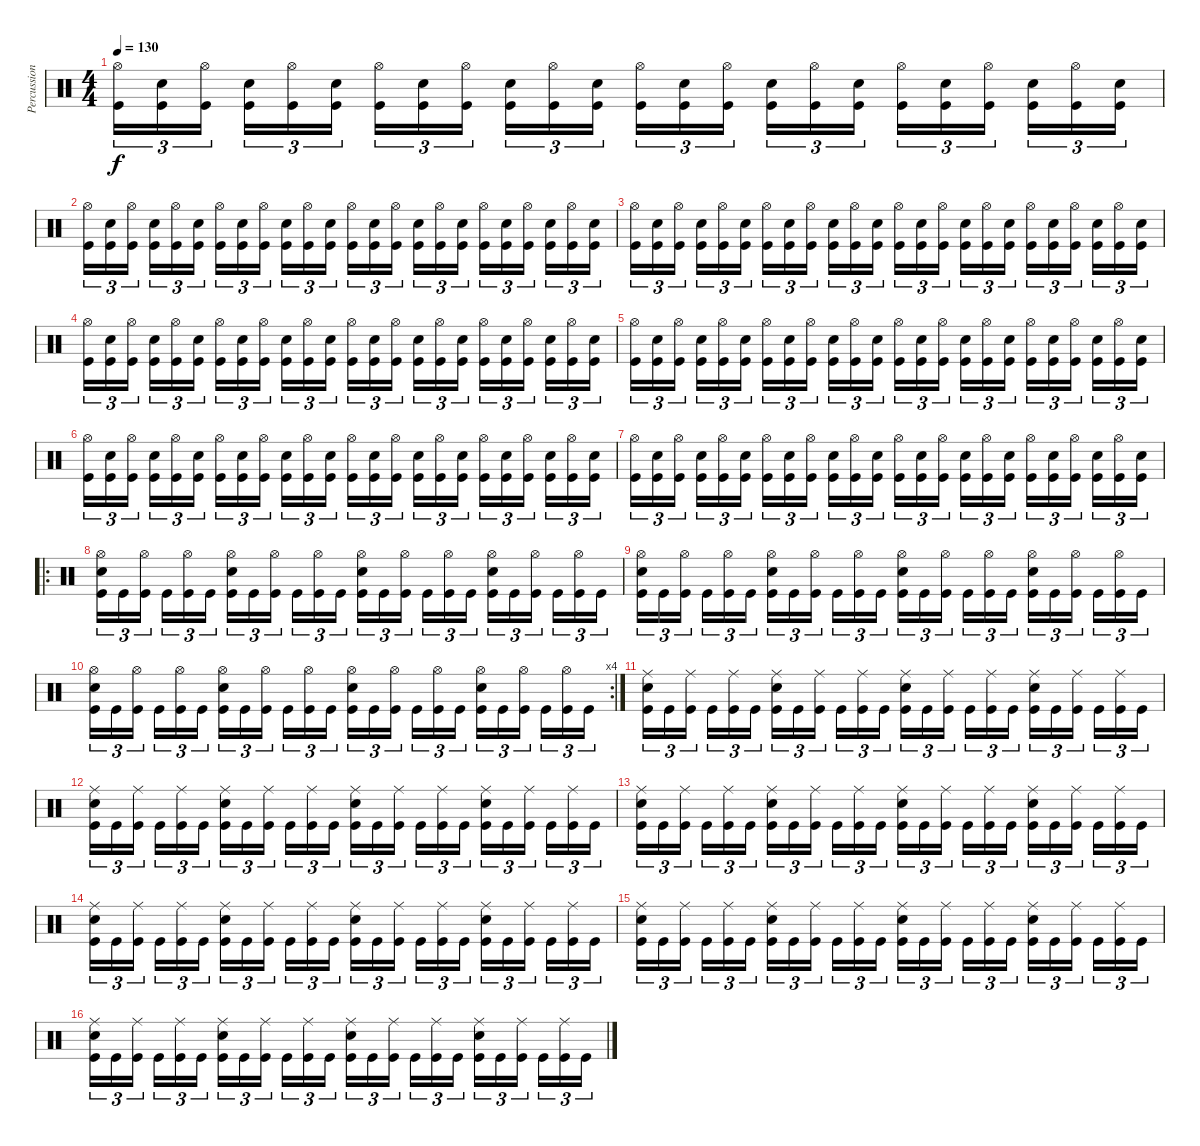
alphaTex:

\track ("Percussion" "Percussion") {instrument percussion}
\staff {score}
\articulation defaults
\ts (4 4)
\tempo 130
\clef neutral
\ks c
("Hi-Hat (open)" "Kick (hit)").16{tu (3 2) dy f} ("Electric Snare (hit)" "Kick (hit)").16{tu (3 2)} ("Hi-Hat (open)" "Kick (hit)").16{tu (3 2)} ("Electric Snare (hit)" "Kick (hit)").16{tu (3 2)} ("Hi-Hat (open)" "Kick (hit)").16{tu (3 2)} ("Electric Snare (hit)" "Kick (hit)").16{tu (3 2)} ("Hi-Hat (open)" "Kick (hit)").16{tu (3 2)} ("Electric Snare (hit)" "Kick (hit)").16{tu (3 2)} ("Hi-Hat (open)" "Kick (hit)").16{tu (3 2)} ("Electric Snare (hit)" "Kick (hit)").16{tu (3 2)} ("Hi-Hat (open)" "Kick (hit)").16{tu (3 2)} ("Electric Snare (hit)" "Kick (hit)").16{tu (3 2)} ("Hi-Hat (open)" "Kick (hit)").16{tu (3 2)} ("Electric Snare (hit)" "Kick (hit)").16{tu (3 2)} ("Hi-Hat (open)" "Kick (hit)").16{tu (3 2)} ("Electric Snare (hit)" "Kick (hit)").16{tu (3 2)} ("Hi-Hat (open)" "Kick (hit)").16{tu (3 2)} ("Electric Snare (hit)" "Kick (hit)").16{tu (3 2)} ("Hi-Hat (open)" "Kick (hit)").16{tu (3 2)} ("Electric Snare (hit)" "Kick (hit)").16{tu (3 2)} ("Hi-Hat (open)" "Kick (hit)").16{tu (3 2)} ("Electric Snare (hit)" "Kick (hit)").16{tu (3 2)} ("Hi-Hat (open)" "Kick (hit)").16{tu (3 2)} ("Electric Snare (hit)" "Kick (hit)").16{tu (3 2)} |
("Hi-Hat (open)" "Kick (hit)").16{tu (3 2)} ("Electric Snare (hit)" "Kick (hit)").16{tu (3 2)} ("Hi-Hat (open)" "Kick (hit)").16{tu (3 2)} ("Electric Snare (hit)" "Kick (hit)").16{tu (3 2)} ("Hi-Hat (open)" "Kick (hit)").16{tu (3 2)} ("Electric Snare (hit)" "Kick (hit)").16{tu (3 2)} ("Hi-Hat (open)" "Kick (hit)").16{tu (3 2)} ("Electric Snare (hit)" "Kick (hit)").16{tu (3 2)} ("Hi-Hat (open)" "Kick (hit)").16{tu (3 2)} ("Electric Snare (hit)" "Kick (hit)").16{tu (3 2)} ("Hi-Hat (open)" "Kick (hit)").16{tu (3 2)} ("Electric Snare (hit)" "Kick (hit)").16{tu (3 2)} ("Hi-Hat (open)" "Kick (hit)").16{tu (3 2)} ("Electric Snare (hit)" "Kick (hit)").16{tu (3 2)} ("Hi-Hat (open)" "Kick (hit)").16{tu (3 2)} ("Electric Snare (hit)" "Kick (hit)").16{tu (3 2)} ("Hi-Hat (open)" "Kick (hit)").16{tu (3 2)} ("Electric Snare (hit)" "Kick (hit)").16{tu (3 2)} ("Hi-Hat (open)" "Kick (hit)").16{tu (3 2)} ("Electric Snare (hit)" "Kick (hit)").16{tu (3 2)} ("Hi-Hat (open)" "Kick (hit)").16{tu (3 2)} ("Electric Snare (hit)" "Kick (hit)").16{tu (3 2)} ("Hi-Hat (open)" "Kick (hit)").16{tu (3 2)} ("Electric Snare (hit)" "Kick (hit)").16{tu (3 2)} |
("Hi-Hat (open)" "Kick (hit)").16{tu (3 2)} ("Electric Snare (hit)" "Kick (hit)").16{tu (3 2)} ("Hi-Hat (open)" "Kick (hit)").16{tu (3 2)} ("Electric Snare (hit)" "Kick (hit)").16{tu (3 2)} ("Hi-Hat (open)" "Kick (hit)").16{tu (3 2)} ("Electric Snare (hit)" "Kick (hit)").16{tu (3 2)} ("Hi-Hat (open)" "Kick (hit)").16{tu (3 2)} ("Electric Snare (hit)" "Kick (hit)").16{tu (3 2)} ("Hi-Hat (open)" "Kick (hit)").16{tu (3 2)} ("Electric Snare (hit)" "Kick (hit)").16{tu (3 2)} ("Hi-Hat (open)" "Kick (hit)").16{tu (3 2)} ("Electric Snare (hit)" "Kick (hit)").16{tu (3 2)} ("Hi-Hat (open)" "Kick (hit)").16{tu (3 2)} ("Electric Snare (hit)" "Kick (hit)").16{tu (3 2)} ("Hi-Hat (open)" "Kick (hit)").16{tu (3 2)} ("Electric Snare (hit)" "Kick (hit)").16{tu (3 2)} ("Hi-Hat (open)" "Kick (hit)").16{tu (3 2)} ("Electric Snare (hit)" "Kick (hit)").16{tu (3 2)} ("Hi-Hat (open)" "Kick (hit)").16{tu (3 2)} ("Electric Snare (hit)" "Kick (hit)").16{tu (3 2)} ("Hi-Hat (open)" "Kick (hit)").16{tu (3 2)} ("Electric Snare (hit)" "Kick (hit)").16{tu (3 2)} ("Hi-Hat (open)" "Kick (hit)").16{tu (3 2)} ("Electric Snare (hit)" "Kick (hit)").16{tu (3 2)} |
("Hi-Hat (open)" "Kick (hit)").16{tu (3 2)} ("Electric Snare (hit)" "Kick (hit)").16{tu (3 2)} ("Hi-Hat (open)" "Kick (hit)").16{tu (3 2)} ("Electric Snare (hit)" "Kick (hit)").16{tu (3 2)} ("Hi-Hat (open)" "Kick (hit)").16{tu (3 2)} ("Electric Snare (hit)" "Kick (hit)").16{tu (3 2)} ("Hi-Hat (open)" "Kick (hit)").16{tu (3 2)} ("Electric Snare (hit)" "Kick (hit)").16{tu (3 2)} ("Hi-Hat (open)" "Kick (hit)").16{tu (3 2)} ("Electric Snare (hit)" "Kick (hit)").16{tu (3 2)} ("Hi-Hat (open)" "Kick (hit)").16{tu (3 2)} ("Electric Snare (hit)" "Kick (hit)").16{tu (3 2)} ("Hi-Hat (open)" "Kick (hit)").16{tu (3 2)} ("Electric Snare (hit)" "Kick (hit)").16{tu (3 2)} ("Hi-Hat (open)" "Kick (hit)").16{tu (3 2)} ("Electric Snare (hit)" "Kick (hit)").16{tu (3 2)} ("Hi-Hat (open)" "Kick (hit)").16{tu (3 2)} ("Electric Snare (hit)" "Kick (hit)").16{tu (3 2)} ("Hi-Hat (open)" "Kick (hit)").16{tu (3 2)} ("Electric Snare (hit)" "Kick (hit)").16{tu (3 2)} ("Hi-Hat (open)" "Kick (hit)").16{tu (3 2)} ("Electric Snare (hit)" "Kick (hit)").16{tu (3 2)} ("Hi-Hat (open)" "Kick (hit)").16{tu (3 2)} ("Electric Snare (hit)" "Kick (hit)").16{tu (3 2)} |
("Hi-Hat (open)" "Kick (hit)").16{tu (3 2)} ("Electric Snare (hit)" "Kick (hit)").16{tu (3 2)} ("Hi-Hat (open)" "Kick (hit)").16{tu (3 2)} ("Electric Snare (hit)" "Kick (hit)").16{tu (3 2)} ("Hi-Hat (open)" "Kick (hit)").16{tu (3 2)} ("Electric Snare (hit)" "Kick (hit)").16{tu (3 2)} ("Hi-Hat (open)" "Kick (hit)").16{tu (3 2)} ("Electric Snare (hit)" "Kick (hit)").16{tu (3 2)} ("Hi-Hat (open)" "Kick (hit)").16{tu (3 2)} ("Electric Snare (hit)" "Kick (hit)").16{tu (3 2)} ("Hi-Hat (open)" "Kick (hit)").16{tu (3 2)} ("Electric Snare (hit)" "Kick (hit)").16{tu (3 2)} ("Hi-Hat (open)" "Kick (hit)").16{tu (3 2)} ("Electric Snare (hit)" "Kick (hit)").16{tu (3 2)} ("Hi-Hat (open)" "Kick (hit)").16{tu (3 2)} ("Electric Snare (hit)" "Kick (hit)").16{tu (3 2)} ("Hi-Hat (open)" "Kick (hit)").16{tu (3 2)} ("Electric Snare (hit)" "Kick (hit)").16{tu (3 2)} ("Hi-Hat (open)" "Kick (hit)").16{tu (3 2)} ("Electric Snare (hit)" "Kick (hit)").16{tu (3 2)} ("Hi-Hat (open)" "Kick (hit)").16{tu (3 2)} ("Electric Snare (hit)" "Kick (hit)").16{tu (3 2)} ("Hi-Hat (open)" "Kick (hit)").16{tu (3 2)} ("Electric Snare (hit)" "Kick (hit)").16{tu (3 2)} |
("Hi-Hat (open)" "Kick (hit)").16{tu (3 2)} ("Electric Snare (hit)" "Kick (hit)").16{tu (3 2)} ("Hi-Hat (open)" "Kick (hit)").16{tu (3 2)} ("Electric Snare (hit)" "Kick (hit)").16{tu (3 2)} ("Hi-Hat (open)" "Kick (hit)").16{tu (3 2)} ("Electric Snare (hit)" "Kick (hit)").16{tu (3 2)} ("Hi-Hat (open)" "Kick (hit)").16{tu (3 2)} ("Electric Snare (hit)" "Kick (hit)").16{tu (3 2)} ("Hi-Hat (open)" "Kick (hit)").16{tu (3 2)} ("Electric Snare (hit)" "Kick (hit)").16{tu (3 2)} ("Hi-Hat (open)" "Kick (hit)").16{tu (3 2)} ("Electric Snare (hit)" "Kick (hit)").16{tu (3 2)} ("Hi-Hat (open)" "Kick (hit)").16{tu (3 2)} ("Electric Snare (hit)" "Kick (hit)").16{tu (3 2)} ("Hi-Hat (open)" "Kick (hit)").16{tu (3 2)} ("Electric Snare (hit)" "Kick (hit)").16{tu (3 2)} ("Hi-Hat (open)" "Kick (hit)").16{tu (3 2)} ("Electric Snare (hit)" "Kick (hit)").16{tu (3 2)} ("Hi-Hat (open)" "Kick (hit)").16{tu (3 2)} ("Electric Snare (hit)" "Kick (hit)").16{tu (3 2)} ("Hi-Hat (open)" "Kick (hit)").16{tu (3 2)} ("Electric Snare (hit)" "Kick (hit)").16{tu (3 2)} ("Hi-Hat (open)" "Kick (hit)").16{tu (3 2)} ("Electric Snare (hit)" "Kick (hit)").16{tu (3 2)} |
("Hi-Hat (open)" "Kick (hit)").16{tu (3 2)} ("Electric Snare (hit)" "Kick (hit)").16{tu (3 2)} ("Hi-Hat (open)" "Kick (hit)").16{tu (3 2)} ("Electric Snare (hit)" "Kick (hit)").16{tu (3 2)} ("Hi-Hat (open)" "Kick (hit)").16{tu (3 2)} ("Electric Snare (hit)" "Kick (hit)").16{tu (3 2)} ("Hi-Hat (open)" "Kick (hit)").16{tu (3 2)} ("Electric Snare (hit)" "Kick (hit)").16{tu (3 2)} ("Hi-Hat (open)" "Kick (hit)").16{tu (3 2)} ("Electric Snare (hit)" "Kick (hit)").16{tu (3 2)} ("Hi-Hat (open)" "Kick (hit)").16{tu (3 2)} ("Electric Snare (hit)" "Kick (hit)").16{tu (3 2)} ("Hi-Hat (open)" "Kick (hit)").16{tu (3 2)} ("Electric Snare (hit)" "Kick (hit)").16{tu (3 2)} ("Hi-Hat (open)" "Kick (hit)").16{tu (3 2)} ("Electric Snare (hit)" "Kick (hit)").16{tu (3 2)} ("Hi-Hat (open)" "Kick (hit)").16{tu (3 2)} ("Electric Snare (hit)" "Kick (hit)").16{tu (3 2)} ("Hi-Hat (open)" "Kick (hit)").16{tu (3 2)} ("Electric Snare (hit)" "Kick (hit)").16{tu (3 2)} ("Hi-Hat (open)" "Kick (hit)").16{tu (3 2)} ("Electric Snare (hit)" "Kick (hit)").16{tu (3 2)} ("Hi-Hat (open)" "Kick (hit)").16{tu (3 2)} ("Electric Snare (hit)" "Kick (hit)").16{tu (3 2)} |
\ro
("Hi-Hat (open)" "Electric Snare (hit)" "Kick (hit)").16{tu (3 2)} "Kick (hit)".16{tu (3 2)} ("Hi-Hat (open)" "Kick (hit)").16{tu (3 2)} "Kick (hit)".16{tu (3 2)} ("Hi-Hat (open)" "Kick (hit)").16{tu (3 2)} "Kick (hit)".16{tu (3 2)} ("Hi-Hat (open)" "Electric Snare (hit)" "Kick (hit)").16{tu (3 2)} "Kick (hit)".16{tu (3 2)} ("Hi-Hat (open)" "Kick (hit)").16{tu (3 2)} "Kick (hit)".16{tu (3 2)} ("Hi-Hat (open)" "Kick (hit)").16{tu (3 2)} "Kick (hit)".16{tu (3 2)} ("Hi-Hat (open)" "Electric Snare (hit)" "Kick (hit)").16{tu (3 2)} "Kick (hit)".16{tu (3 2)} ("Hi-Hat (open)" "Kick (hit)").16{tu (3 2)} "Kick (hit)".16{tu (3 2)} ("Hi-Hat (open)" "Kick (hit)").16{tu (3 2)} "Kick (hit)".16{tu (3 2)} ("Hi-Hat (open)" "Electric Snare (hit)" "Kick (hit)").16{tu (3 2)} "Kick (hit)".16{tu (3 2)} ("Hi-Hat (open)" "Kick (hit)").16{tu (3 2)} "Kick (hit)".16{tu (3 2)} ("Hi-Hat (open)" "Kick (hit)").16{tu (3 2)} "Kick (hit)".16{tu (3 2)} |
("Hi-Hat (open)" "Electric Snare (hit)" "Kick (hit)").16{tu (3 2)} "Kick (hit)".16{tu (3 2)} ("Hi-Hat (open)" "Kick (hit)").16{tu (3 2)} "Kick (hit)".16{tu (3 2)} ("Hi-Hat (open)" "Kick (hit)").16{tu (3 2)} "Kick (hit)".16{tu (3 2)} ("Hi-Hat (open)" "Electric Snare (hit)" "Kick (hit)").16{tu (3 2)} "Kick (hit)".16{tu (3 2)} ("Hi-Hat (open)" "Kick (hit)").16{tu (3 2)} "Kick (hit)".16{tu (3 2)} ("Hi-Hat (open)" "Kick (hit)").16{tu (3 2)} "Kick (hit)".16{tu (3 2)} ("Hi-Hat (open)" "Electric Snare (hit)" "Kick (hit)").16{tu (3 2)} "Kick (hit)".16{tu (3 2)} ("Hi-Hat (open)" "Kick (hit)").16{tu (3 2)} "Kick (hit)".16{tu (3 2)} ("Hi-Hat (open)" "Kick (hit)").16{tu (3 2)} "Kick (hit)".16{tu (3 2)} ("Hi-Hat (open)" "Electric Snare (hit)" "Kick (hit)").16{tu (3 2)} "Kick (hit)".16{tu (3 2)} ("Hi-Hat (open)" "Kick (hit)").16{tu (3 2)} "Kick (hit)".16{tu (3 2)} ("Hi-Hat (open)" "Kick (hit)").16{tu (3 2)} "Kick (hit)".16{tu (3 2)} |
\rc 4
("Hi-Hat (open)" "Electric Snare (hit)" "Kick (hit)").16{tu (3 2)} "Kick (hit)".16{tu (3 2)} ("Hi-Hat (open)" "Kick (hit)").16{tu (3 2)} "Kick (hit)".16{tu (3 2)} ("Hi-Hat (open)" "Kick (hit)").16{tu (3 2)} "Kick (hit)".16{tu (3 2)} ("Hi-Hat (open)" "Electric Snare (hit)" "Kick (hit)").16{tu (3 2)} "Kick (hit)".16{tu (3 2)} ("Hi-Hat (open)" "Kick (hit)").16{tu (3 2)} "Kick (hit)".16{tu (3 2)} ("Hi-Hat (open)" "Kick (hit)").16{tu (3 2)} "Kick (hit)".16{tu (3 2)} ("Hi-Hat (open)" "Electric Snare (hit)" "Kick (hit)").16{tu (3 2)} "Kick (hit)".16{tu (3 2)} ("Hi-Hat (open)" "Kick (hit)").16{tu (3 2)} "Kick (hit)".16{tu (3 2)} ("Hi-Hat (open)" "Kick (hit)").16{tu (3 2)} "Kick (hit)".16{tu (3 2)} ("Hi-Hat (open)" "Electric Snare (hit)" "Kick (hit)").16{tu (3 2)} "Kick (hit)".16{tu (3 2)} ("Hi-Hat (open)" "Kick (hit)").16{tu (3 2)} "Kick (hit)".16{tu (3 2)} ("Hi-Hat (open)" "Kick (hit)").16{tu (3 2)} "Kick (hit)".16{tu (3 2)} |
("Ride (middle)" "Electric Snare (hit)" "Kick (hit)").16{tu (3 2)} "Kick (hit)".16{tu (3 2)} ("Ride (middle)" "Kick (hit)").16{tu (3 2)} "Kick (hit)".16{tu (3 2)} ("Ride (middle)" "Kick (hit)").16{tu (3 2)} "Kick (hit)".16{tu (3 2)} ("Ride (middle)" "Electric Snare (hit)" "Kick (hit)").16{tu (3 2)} "Kick (hit)".16{tu (3 2)} ("Ride (middle)" "Kick (hit)").16{tu (3 2)} "Kick (hit)".16{tu (3 2)} ("Ride (middle)" "Kick (hit)").16{tu (3 2)} "Kick (hit)".16{tu (3 2)} ("Ride (middle)" "Electric Snare (hit)" "Kick (hit)").16{tu (3 2)} "Kick (hit)".16{tu (3 2)} ("Ride (middle)" "Kick (hit)").16{tu (3 2)} "Kick (hit)".16{tu (3 2)} ("Ride (middle)" "Kick (hit)").16{tu (3 2)} "Kick (hit)".16{tu (3 2)} ("Ride (middle)" "Electric Snare (hit)" "Kick (hit)").16{tu (3 2)} "Kick (hit)".16{tu (3 2)} ("Ride (middle)" "Kick (hit)").16{tu (3 2)} "Kick (hit)".16{tu (3 2)} ("Ride (middle)" "Kick (hit)").16{tu (3 2)} "Kick (hit)".16{tu (3 2)} |
("Ride (middle)" "Electric Snare (hit)" "Kick (hit)").16{tu (3 2)} "Kick (hit)".16{tu (3 2)} ("Ride (middle)" "Kick (hit)").16{tu (3 2)} "Kick (hit)".16{tu (3 2)} ("Ride (middle)" "Kick (hit)").16{tu (3 2)} "Kick (hit)".16{tu (3 2)} ("Ride (middle)" "Electric Snare (hit)" "Kick (hit)").16{tu (3 2)} "Kick (hit)".16{tu (3 2)} ("Ride (middle)" "Kick (hit)").16{tu (3 2)} "Kick (hit)".16{tu (3 2)} ("Ride (middle)" "Kick (hit)").16{tu (3 2)} "Kick (hit)".16{tu (3 2)} ("Ride (middle)" "Electric Snare (hit)" "Kick (hit)").16{tu (3 2)} "Kick (hit)".16{tu (3 2)} ("Ride (middle)" "Kick (hit)").16{tu (3 2)} "Kick (hit)".16{tu (3 2)} ("Ride (middle)" "Kick (hit)").16{tu (3 2)} "Kick (hit)".16{tu (3 2)} ("Ride (middle)" "Electric Snare (hit)" "Kick (hit)").16{tu (3 2)} "Kick (hit)".16{tu (3 2)} ("Ride (middle)" "Kick (hit)").16{tu (3 2)} "Kick (hit)".16{tu (3 2)} ("Ride (middle)" "Kick (hit)").16{tu (3 2)} "Kick (hit)".16{tu (3 2)} |
("Ride (middle)" "Electric Snare (hit)" "Kick (hit)").16{tu (3 2)} "Kick (hit)".16{tu (3 2)} ("Ride (middle)" "Kick (hit)").16{tu (3 2)} "Kick (hit)".16{tu (3 2)} ("Ride (middle)" "Kick (hit)").16{tu (3 2)} "Kick (hit)".16{tu (3 2)} ("Ride (middle)" "Electric Snare (hit)" "Kick (hit)").16{tu (3 2)} "Kick (hit)".16{tu (3 2)} ("Ride (middle)" "Kick (hit)").16{tu (3 2)} "Kick (hit)".16{tu (3 2)} ("Ride (middle)" "Kick (hit)").16{tu (3 2)} "Kick (hit)".16{tu (3 2)} ("Ride (middle)" "Electric Snare (hit)" "Kick (hit)").16{tu (3 2)} "Kick (hit)".16{tu (3 2)} ("Ride (middle)" "Kick (hit)").16{tu (3 2)} "Kick (hit)".16{tu (3 2)} ("Ride (middle)" "Kick (hit)").16{tu (3 2)} "Kick (hit)".16{tu (3 2)} ("Ride (middle)" "Electric Snare (hit)" "Kick (hit)").16{tu (3 2)} "Kick (hit)".16{tu (3 2)} ("Ride (middle)" "Kick (hit)").16{tu (3 2)} "Kick (hit)".16{tu (3 2)} ("Ride (middle)" "Kick (hit)").16{tu (3 2)} "Kick (hit)".16{tu (3 2)} |
("Ride (middle)" "Electric Snare (hit)" "Kick (hit)").16{tu (3 2)} "Kick (hit)".16{tu (3 2)} ("Ride (middle)" "Kick (hit)").16{tu (3 2)} "Kick (hit)".16{tu (3 2)} ("Ride (middle)" "Kick (hit)").16{tu (3 2)} "Kick (hit)".16{tu (3 2)} ("Ride (middle)" "Electric Snare (hit)" "Kick (hit)").16{tu (3 2)} "Kick (hit)".16{tu (3 2)} ("Ride (middle)" "Kick (hit)").16{tu (3 2)} "Kick (hit)".16{tu (3 2)} ("Ride (middle)" "Kick (hit)").16{tu (3 2)} "Kick (hit)".16{tu (3 2)} ("Ride (middle)" "Electric Snare (hit)" "Kick (hit)").16{tu (3 2)} "Kick (hit)".16{tu (3 2)} ("Ride (middle)" "Kick (hit)").16{tu (3 2)} "Kick (hit)".16{tu (3 2)} ("Ride (middle)" "Kick (hit)").16{tu (3 2)} "Kick (hit)".16{tu (3 2)} ("Ride (middle)" "Electric Snare (hit)" "Kick (hit)").16{tu (3 2)} "Kick (hit)".16{tu (3 2)} ("Ride (middle)" "Kick (hit)").16{tu (3 2)} "Kick (hit)".16{tu (3 2)} ("Ride (middle)" "Kick (hit)").16{tu (3 2)} "Kick (hit)".16{tu (3 2)} |
("Ride (middle)" "Electric Snare (hit)" "Kick (hit)").16{tu (3 2)} "Kick (hit)".16{tu (3 2)} ("Ride (middle)" "Kick (hit)").16{tu (3 2)} "Kick (hit)".16{tu (3 2)} ("Ride (middle)" "Kick (hit)").16{tu (3 2)} "Kick (hit)".16{tu (3 2)} ("Ride (middle)" "Electric Snare (hit)" "Kick (hit)").16{tu (3 2)} "Kick (hit)".16{tu (3 2)} ("Ride (middle)" "Kick (hit)").16{tu (3 2)} "Kick (hit)".16{tu (3 2)} ("Ride (middle)" "Kick (hit)").16{tu (3 2)} "Kick (hit)".16{tu (3 2)} ("Ride (middle)" "Electric Snare (hit)" "Kick (hit)").16{tu (3 2)} "Kick (hit)".16{tu (3 2)} ("Ride (middle)" "Kick (hit)").16{tu (3 2)} "Kick (hit)".16{tu (3 2)} ("Ride (middle)" "Kick (hit)").16{tu (3 2)} "Kick (hit)".16{tu (3 2)} ("Ride (middle)" "Electric Snare (hit)" "Kick (hit)").16{tu (3 2)} "Kick (hit)".16{tu (3 2)} ("Ride (middle)" "Kick (hit)").16{tu (3 2)} "Kick (hit)".16{tu (3 2)} ("Ride (middle)" "Kick (hit)").16{tu (3 2)} "Kick (hit)".16{tu (3 2)} |
("Ride (middle)" "Electric Snare (hit)" "Kick (hit)").16{tu (3 2)} "Kick (hit)".16{tu (3 2)} ("Ride (middle)" "Kick (hit)").16{tu (3 2)} "Kick (hit)".16{tu (3 2)} ("Ride (middle)" "Kick (hit)").16{tu (3 2)} "Kick (hit)".16{tu (3 2)} ("Ride (middle)" "Electric Snare (hit)" "Kick (hit)").16{tu (3 2)} "Kick (hit)".16{tu (3 2)} ("Ride (middle)" "Kick (hit)").16{tu (3 2)} "Kick (hit)".16{tu (3 2)} ("Ride (middle)" "Kick (hit)").16{tu (3 2)} "Kick (hit)".16{tu (3 2)} ("Ride (middle)" "Electric Snare (hit)" "Kick (hit)").16{tu (3 2)} "Kick (hit)".16{tu (3 2)} ("Ride (middle)" "Kick (hit)").16{tu (3 2)} "Kick (hit)".16{tu (3 2)} ("Ride (middle)" "Kick (hit)").16{tu (3 2)} "Kick (hit)".16{tu (3 2)} ("Ride (middle)" "Electric Snare (hit)" "Kick (hit)").16{tu (3 2)} "Kick (hit)".16{tu (3 2)} ("Ride (middle)" "Kick (hit)").16{tu (3 2)} "Kick (hit)".16{tu (3 2)} ("Ride (middle)" "Kick (hit)").16{tu (3 2)} "Kick (hit)".16{tu (3 2)}
